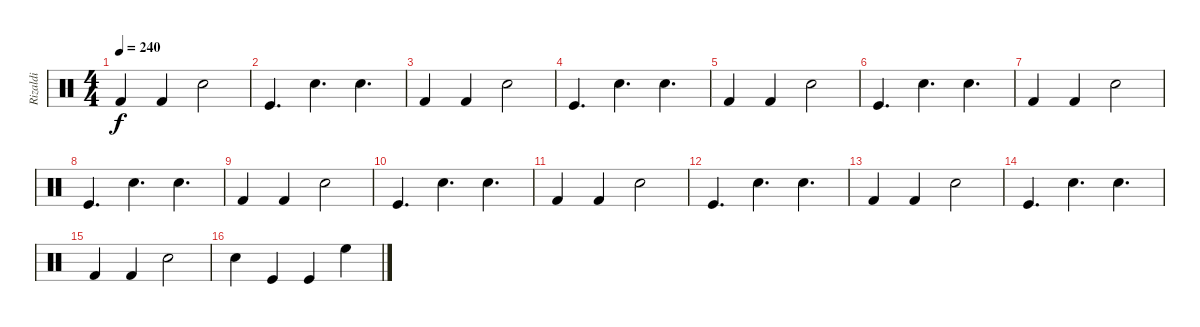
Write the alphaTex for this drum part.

\track ("Rizaldi" "Rizaldi") {instrument percussion}
\staff {score}
\articulation defaults
\ts (4 4)
\tempo 240
\clef neutral
\ks c "Kick (hit) 2".4{dy f} "Kick (hit) 2".4 "Snare (hit) 2".2
|
"Kick (hit)".4{d} "Electric Snare (hit)".4{d} "Electric Snare (hit)".4{d} |
"Kick (hit) 2".4 "Kick (hit) 2".4 "Snare (hit) 2".2 |
"Kick (hit)".4{d} "Electric Snare (hit)".4{d} "Electric Snare (hit)".4{d} |
"Kick (hit) 2".4 "Kick (hit) 2".4 "Snare (hit) 2".2 |
"Kick (hit)".4{d} "Electric Snare (hit)".4{d} "Electric Snare (hit)".4{d} |
"Kick (hit) 2".4 "Kick (hit) 2".4 "Snare (hit) 2".2 |
"Kick (hit)".4{d} "Electric Snare (hit)".4{d} "Electric Snare (hit)".4{d} |
"Kick (hit) 2".4 "Kick (hit) 2".4 "Snare (hit) 2".2 |
"Kick (hit)".4{d} "Electric Snare (hit)".4{d} "Electric Snare (hit)".4{d} |
"Kick (hit) 2".4 "Kick (hit) 2".4 "Snare (hit) 2".2 |
"Kick (hit)".4{d} "Electric Snare (hit)".4{d} "Electric Snare (hit)".4{d} |
"Kick (hit) 2".4 "Kick (hit) 2".4 "Snare (hit) 2".2 |
"Kick (hit)".4{d} "Electric Snare (hit)".4{d} "Electric Snare (hit)".4{d} |
"Kick (hit) 2".4 "Kick (hit) 2".4 "Snare (hit) 2".2 |
"Snare (hit) 2".4 "Kick (hit)".4 "Kick (hit)".4 "High Floor Tom (hit)".4
